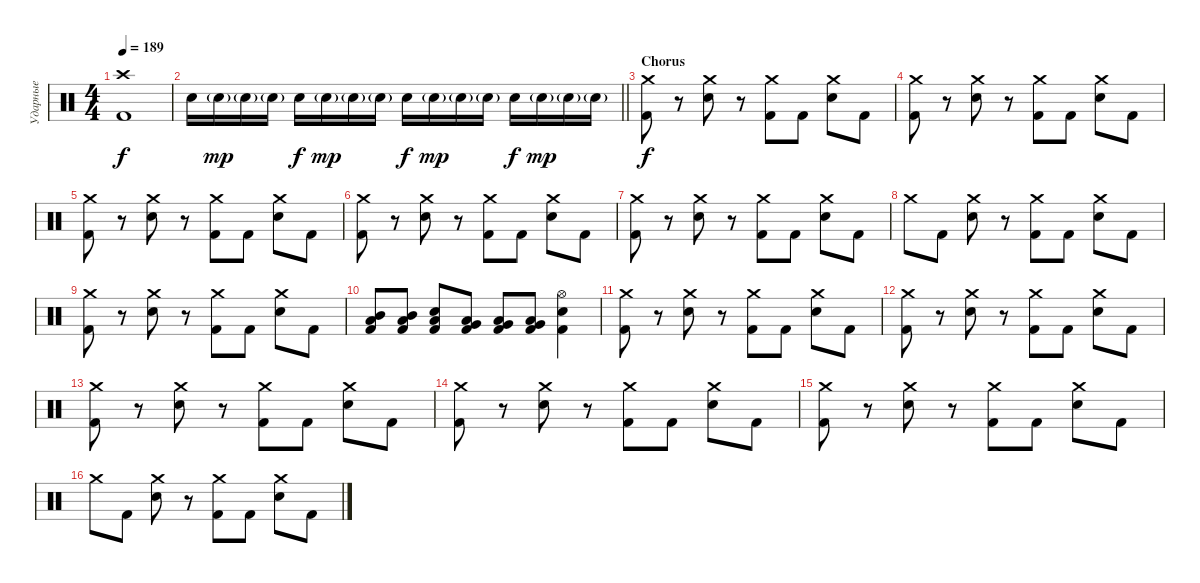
\track ("Ударные" "Ударные") {instrument percussion}
\staff {score}
\articulation defaults
\ts (4 4)
\tempo 189
\clef neutral
\ks c
("Crash high (hit)" "Kick (hit) 2").1{dy f} |
\barLineRight lightlight "Electric Snare (hit)".16 "Electric Snare (hit)"{g}.16{dy mp} "Electric Snare (hit)"{g}.16 "Electric Snare (hit)"{g}.16 "Electric Snare (hit)".16{dy f} "Electric Snare (hit)"{g}.16{dy mp} "Electric Snare (hit)"{g}.16 "Electric Snare (hit)"{g}.16 "Electric Snare (hit)".16{dy f} "Electric Snare (hit)"{g}.16{dy mp} "Electric Snare (hit)"{g}.16 "Electric Snare (hit)"{g}.16 "Electric Snare (hit)".16{dy f} "Electric Snare (hit)"{g}.16{dy mp} "Electric Snare (hit)"{g}.16 "Electric Snare (hit)"{g}.16
|
\section ("" "Chorus")
("Crash medium (hit)" "Kick (hit) 2").8{dy f} r.8 ("Crash medium (hit)" "Electric Snare (hit)").8 r.8 ("Crash medium (hit)" "Kick (hit) 2").8 "Kick (hit) 2".8 ("Crash medium (hit)" "Electric Snare (hit)").8 "Kick (hit) 2".8 |
("Crash medium (hit)" "Kick (hit) 2").8 r.8 ("Crash medium (hit)" "Electric Snare (hit)").8 r.8 ("Crash medium (hit)" "Kick (hit) 2").8 "Kick (hit) 2".8 ("Crash medium (hit)" "Electric Snare (hit)").8 "Kick (hit) 2".8 |
("Crash medium (hit)" "Kick (hit) 2").8 r.8 ("Crash medium (hit)" "Electric Snare (hit)").8 r.8 ("Crash medium (hit)" "Kick (hit) 2").8 "Kick (hit) 2".8 ("Crash medium (hit)" "Electric Snare (hit)").8 "Kick (hit) 2".8 |
("Crash medium (hit)" "Kick (hit) 2").8 r.8 ("Crash medium (hit)" "Electric Snare (hit)").8 r.8 ("Crash medium (hit)" "Kick (hit) 2").8 "Kick (hit) 2".8 ("Crash medium (hit)" "Electric Snare (hit)").8 "Kick (hit) 2".8 |
("Crash medium (hit)" "Kick (hit) 2").8 r.8 ("Crash medium (hit)" "Electric Snare (hit)").8 r.8 ("Crash medium (hit)" "Kick (hit) 2").8 "Kick (hit) 2".8 ("Crash medium (hit)" "Electric Snare (hit)").8 "Kick (hit) 2".8 |
"Crash medium (hit)".8 "Kick (hit) 2".8 ("Crash medium (hit)" "Electric Snare (hit)").8 r.8 ("Crash medium (hit)" "Kick (hit) 2").8 "Kick (hit) 2".8 ("Crash medium (hit)" "Electric Snare (hit)").8 "Kick (hit) 2".8 |
("Crash medium (hit)" "Kick (hit) 2").8 r.8 ("Crash medium (hit)" "Electric Snare (hit)").8 r.8 ("Crash medium (hit)" "Kick (hit) 2").8 "Kick (hit) 2".8 ("Crash medium (hit)" "Electric Snare (hit)").8 "Kick (hit) 2".8 |
("Low Tom (hit)" "Mid Tom (hit)" "Kick (hit) 2").8 ("Low Tom (hit)" "Mid Tom (hit)" "Kick (hit) 2").8 ("Low Tom (hit)" "Electric Snare (hit)" "Kick (hit) 2").8 ("Very Low Tom (hit)" "Low Tom (hit)" "Kick (hit) 2").8 ("Low Floor Tom (hit)" "Very Low Tom (hit)" "Kick (hit) 2").8 ("Low Floor Tom (hit)" "Very Low Tom (hit)" "Kick (hit) 2").8 ("Hi-Hat (open)" "Electric Snare (hit)" "Kick (hit) 2").4 |
("Crash medium (hit)" "Kick (hit) 2").8 r.8 ("Crash medium (hit)" "Electric Snare (hit)").8 r.8 ("Crash medium (hit)" "Kick (hit) 2").8 "Kick (hit) 2".8 ("Crash medium (hit)" "Electric Snare (hit)").8 "Kick (hit) 2".8 |
("Crash medium (hit)" "Kick (hit) 2").8 r.8 ("Crash medium (hit)" "Electric Snare (hit)").8 r.8 ("Crash medium (hit)" "Kick (hit) 2").8 "Kick (hit) 2".8 ("Crash medium (hit)" "Electric Snare (hit)").8 "Kick (hit) 2".8 |
("Crash medium (hit)" "Kick (hit) 2").8 r.8 ("Crash medium (hit)" "Electric Snare (hit)").8 r.8 ("Crash medium (hit)" "Kick (hit) 2").8 "Kick (hit) 2".8 ("Crash medium (hit)" "Electric Snare (hit)").8 "Kick (hit) 2".8 |
("Crash medium (hit)" "Kick (hit) 2").8 r.8 ("Crash medium (hit)" "Electric Snare (hit)").8 r.8 ("Crash medium (hit)" "Kick (hit) 2").8 "Kick (hit) 2".8 ("Crash medium (hit)" "Electric Snare (hit)").8 "Kick (hit) 2".8 |
("Crash medium (hit)" "Kick (hit) 2").8 r.8 ("Crash medium (hit)" "Electric Snare (hit)").8 r.8 ("Crash medium (hit)" "Kick (hit) 2").8 "Kick (hit) 2".8 ("Crash medium (hit)" "Electric Snare (hit)").8 "Kick (hit) 2".8 |
"Crash medium (hit)".8 "Kick (hit) 2".8 ("Crash medium (hit)" "Electric Snare (hit)").8 r.8 ("Crash medium (hit)" "Kick (hit) 2").8 "Kick (hit) 2".8 ("Crash medium (hit)" "Electric Snare (hit)").8 "Kick (hit) 2".8
